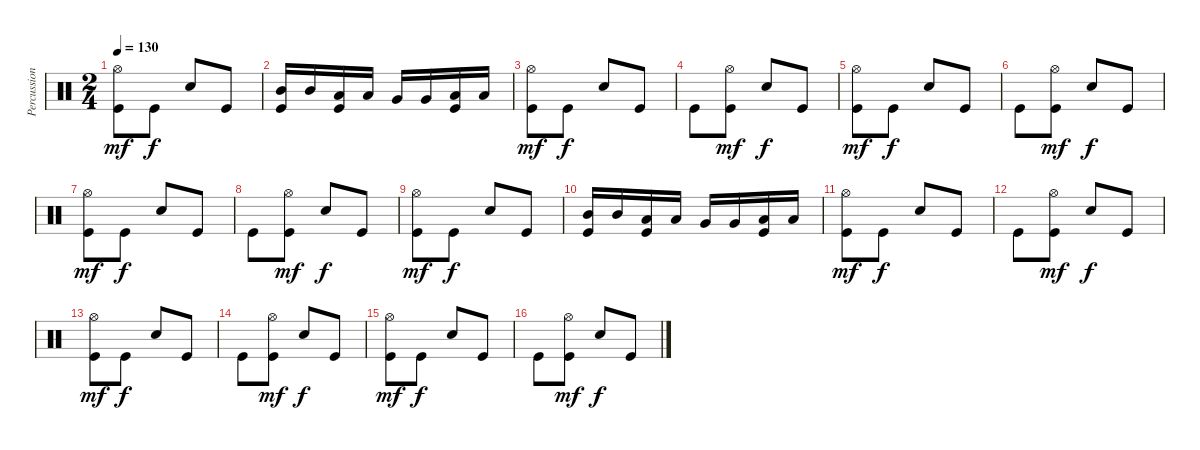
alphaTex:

\track ("Percussion" "Percussion") {instrument percussion}
\staff {score}
\articulation defaults
\ts (2 4)
\tempo 130
\clef neutral
\ks c
("Hi-Hat (open)" "Kick (hit)").8{dy mf} "Kick (hit)".8{dy f} "Snare (hit) 2".8 "Kick (hit)".8 |
("Kick (hit)" "Mid Tom (hit)").16 "Mid Tom (hit)".16 ("Kick (hit)" "Low Tom (hit)").16 "Low Tom (hit)".16 "Very Low Tom (hit)".16 "Very Low Tom (hit)".16 ("Kick (hit)" "Low Floor Tom (hit)").16 "Low Floor Tom (hit)".16 |
("Hi-Hat (open)" "Kick (hit)").8{dy mf} "Kick (hit)".8{dy f} "Snare (hit) 2".8 "Kick (hit)".8 |
"Kick (hit)".8 ("Hi-Hat (open)" "Kick (hit)").8{dy mf} "Snare (hit) 2".8{dy f} "Kick (hit)".8 |
("Hi-Hat (open)" "Kick (hit)").8{dy mf} "Kick (hit)".8{dy f} "Snare (hit) 2".8 "Kick (hit)".8 |
"Kick (hit)".8 ("Hi-Hat (open)" "Kick (hit)").8{dy mf} "Snare (hit) 2".8{dy f} "Kick (hit)".8 |
("Hi-Hat (open)" "Kick (hit)").8{dy mf} "Kick (hit)".8{dy f} "Snare (hit) 2".8 "Kick (hit)".8 |
"Kick (hit)".8 ("Hi-Hat (open)" "Kick (hit)").8{dy mf} "Snare (hit) 2".8{dy f} "Kick (hit)".8 |
("Hi-Hat (open)" "Kick (hit)").8{dy mf} "Kick (hit)".8{dy f} "Snare (hit) 2".8 "Kick (hit)".8 |
("Kick (hit)" "Mid Tom (hit)").16 "Mid Tom (hit)".16 ("Kick (hit)" "Low Tom (hit)").16 "Low Tom (hit)".16 "Very Low Tom (hit)".16 "Very Low Tom (hit)".16 ("Kick (hit)" "Low Floor Tom (hit)").16 "Low Floor Tom (hit)".16 |
("Hi-Hat (open)" "Kick (hit)").8{dy mf} "Kick (hit)".8{dy f} "Snare (hit) 2".8 "Kick (hit)".8 |
"Kick (hit)".8 ("Hi-Hat (open)" "Kick (hit)").8{dy mf} "Snare (hit) 2".8{dy f} "Kick (hit)".8 |
("Hi-Hat (open)" "Kick (hit)").8{dy mf} "Kick (hit)".8{dy f} "Snare (hit) 2".8 "Kick (hit)".8 |
"Kick (hit)".8 ("Hi-Hat (open)" "Kick (hit)").8{dy mf} "Snare (hit) 2".8{dy f} "Kick (hit)".8 |
("Hi-Hat (open)" "Kick (hit)").8{dy mf} "Kick (hit)".8{dy f} "Snare (hit) 2".8 "Kick (hit)".8 |
"Kick (hit)".8 ("Hi-Hat (open)" "Kick (hit)").8{dy mf} "Snare (hit) 2".8{dy f} "Kick (hit)".8
